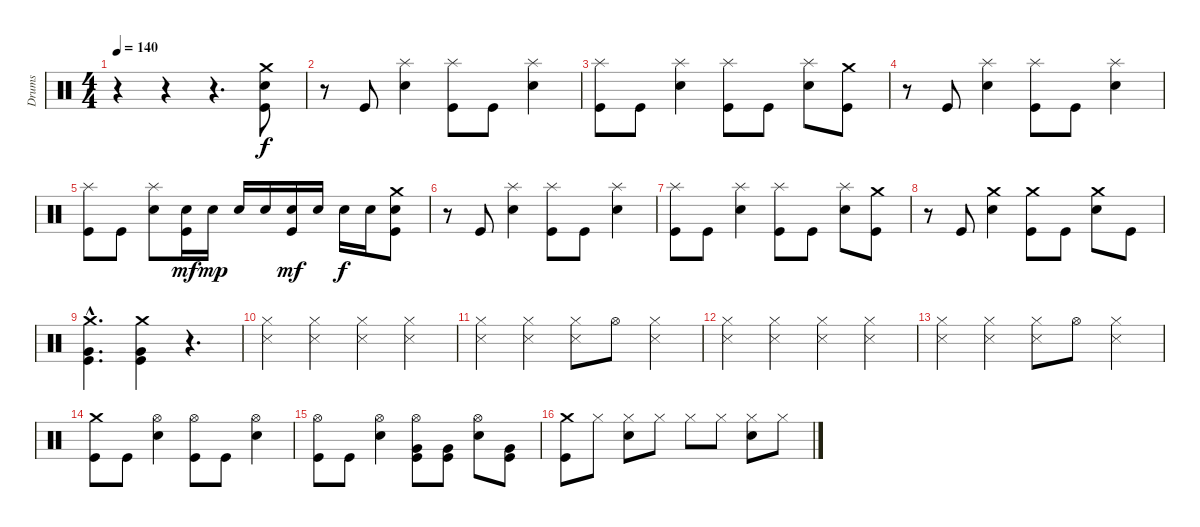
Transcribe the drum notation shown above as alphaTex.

\track ("Drums" "Drums") {instrument percussion}
\staff {score}
\articulation defaults
\ts (4 4)
\tempo 140
\clef neutral
\ks c
r.4{dy f} r.4 r.4{d} ("Crash medium (hit)" "Electric Snare (hit)" "Kick (hit)").8 |
r.8 "Kick (hit)".8 ("Splash (hit)" "Electric Snare (hit)").4 ("Splash (hit)" "Kick (hit)").8 "Kick (hit)".8 ("Splash (hit)" "Electric Snare (hit)").4 |
("Splash (hit)" "Kick (hit)").8 "Kick (hit)".8 ("Splash (hit)" "Electric Snare (hit)").4 ("Splash (hit)" "Kick (hit)").8 "Kick (hit)".8 ("Splash (hit)" "Electric Snare (hit)").8 ("Crash medium (hit)" "Kick (hit)").8 |
r.8 "Kick (hit)".8 ("Splash (hit)" "Electric Snare (hit)").4 ("Splash (hit)" "Kick (hit)").8 "Kick (hit)".8 ("Splash (hit)" "Electric Snare (hit)").4 |
("Splash (hit)" "Kick (hit)").8 "Kick (hit)".8 ("Splash (hit)" "Electric Snare (hit)").8 ("Electric Snare (hit)" "Kick (hit)").16{dy mf} "Electric Snare (hit)".16{dy mp} "Electric Snare (hit)".16 "Electric Snare (hit)".16 ("Electric Snare (hit)" "Kick (hit)").16{dy mf} "Electric Snare (hit)".16 "Electric Snare (hit)".16{dy f} "Electric Snare (hit)".16 ("Crash medium (hit)" "Electric Snare (hit)" "Kick (hit)").8 |
r.8 "Kick (hit)".8 ("Splash (hit)" "Electric Snare (hit)").4 ("Splash (hit)" "Kick (hit)").8 "Kick (hit)".8 ("Splash (hit)" "Electric Snare (hit)").4 |
("Splash (hit)" "Kick (hit)").8 "Kick (hit)".8 ("Splash (hit)" "Electric Snare (hit)").4 ("Splash (hit)" "Kick (hit)").8 "Kick (hit)".8 ("Splash (hit)" "Electric Snare (hit)").8 ("Crash medium (hit)" "Kick (hit)").8 |
r.8 "Kick (hit)".8 ("Crash medium (hit)" "Electric Snare (hit)").4 ("Crash medium (hit)" "Kick (hit)").8 "Kick (hit)".8 ("Crash medium (hit)" "Electric Snare (hit)").8 "Kick (hit)".8 |
("Crash medium (hit)"{hac} "Very Low Tom (hit)"{hac} "Kick (hit)"{hac}).4{d} ("Crash medium (hit)" "Very Low Tom (hit)" "Kick (hit)").4 r.4{d} |
("Hi-Hat (closed)" "Snare (side stick) 3").4 ("Hi-Hat (closed)" "Snare (side stick) 3").4 ("Hi-Hat (closed)" "Snare (side stick) 3").4 ("Hi-Hat (closed)" "Snare (side stick) 3").4 |
("Hi-Hat (closed)" "Snare (side stick) 3").4 ("Hi-Hat (closed)" "Snare (side stick) 3").4 ("Hi-Hat (closed)" "Snare (side stick) 3").8 "Hi-Hat (open)".8 ("Hi-Hat (closed)" "Snare (side stick) 3").4 |
("Hi-Hat (closed)" "Snare (side stick) 3").4 ("Hi-Hat (closed)" "Snare (side stick) 3").4 ("Hi-Hat (closed)" "Snare (side stick) 3").4 ("Hi-Hat (closed)" "Snare (side stick) 3").4 |
("Hi-Hat (closed)" "Snare (side stick) 3").4 ("Hi-Hat (closed)" "Snare (side stick) 3").4 ("Hi-Hat (closed)" "Snare (side stick) 3").8 "Hi-Hat (open)".8 ("Hi-Hat (closed)" "Snare (side stick) 3").4 |
("Crash medium (hit)" "Kick (hit)").8 "Kick (hit)".8 ("Hi-Hat (open)" "Electric Snare (hit)").4 ("Hi-Hat (open)" "Kick (hit)").8 "Kick (hit)".8 ("Hi-Hat (open)" "Electric Snare (hit)").4 |
("Hi-Hat (open)" "Kick (hit)").8 "Kick (hit)".8 ("Hi-Hat (open)" "Electric Snare (hit)").4 ("Hi-Hat (open)" "Very Low Tom (hit)" "Kick (hit)").8 ("Very Low Tom (hit)" "Kick (hit)").8 ("Hi-Hat (open)" "Electric Snare (hit)").8 ("Very Low Tom (hit)" "Kick (hit)").8 |
("Crash medium (hit)" "Kick (hit)").8 "Hi-Hat (closed)".8 ("Hi-Hat (closed)" "Electric Snare (hit)").8 "Hi-Hat (closed)".8 "Hi-Hat (closed)".8 "Hi-Hat (closed)".8 ("Hi-Hat (closed)" "Electric Snare (hit)").8 "Hi-Hat (closed)".8
